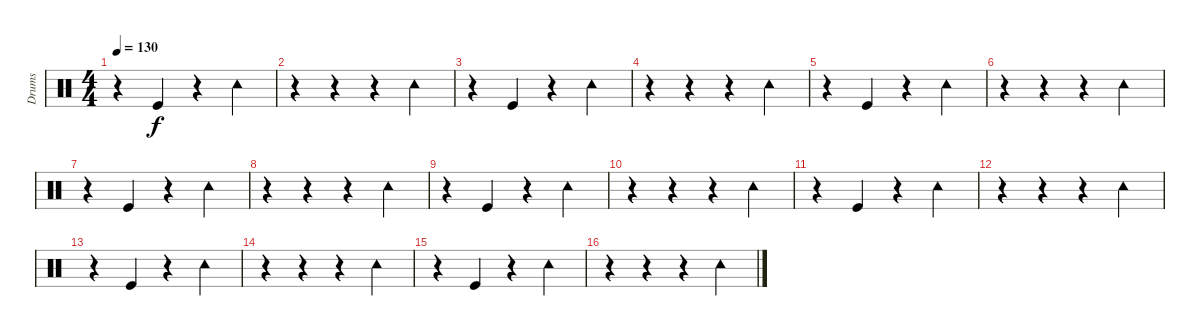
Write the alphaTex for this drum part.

\track ("Drums" "Drums") {instrument percussion}
\staff {score}
\articulation defaults
\ts (4 4)
\tempo 130
\clef neutral
\ks c
r.4{dy f} "Kick (hit)".4 r.4 "Tambourine (hit)".4 |
r.4 r.4 r.4 "Tambourine (hit)".4 |
r.4 "Kick (hit)".4 r.4 "Tambourine (hit)".4 |
r.4 r.4 r.4 "Tambourine (hit)".4 |
r.4 "Kick (hit)".4 r.4 "Tambourine (hit)".4 |
r.4 r.4 r.4 "Tambourine (hit)".4 |
r.4 "Kick (hit)".4 r.4 "Tambourine (hit)".4 |
r.4 r.4 r.4 "Tambourine (hit)".4 |
r.4 "Kick (hit)".4 r.4 "Tambourine (hit)".4 |
r.4 r.4 r.4 "Tambourine (hit)".4 |
r.4 "Kick (hit)".4 r.4 "Tambourine (hit)".4 |
r.4 r.4 r.4 "Tambourine (hit)".4 |
r.4 "Kick (hit)".4 r.4 "Tambourine (hit)".4 |
r.4 r.4 r.4 "Tambourine (hit)".4 |
r.4 "Kick (hit)".4 r.4 "Tambourine (hit)".4 |
r.4 r.4 r.4 "Tambourine (hit)".4
